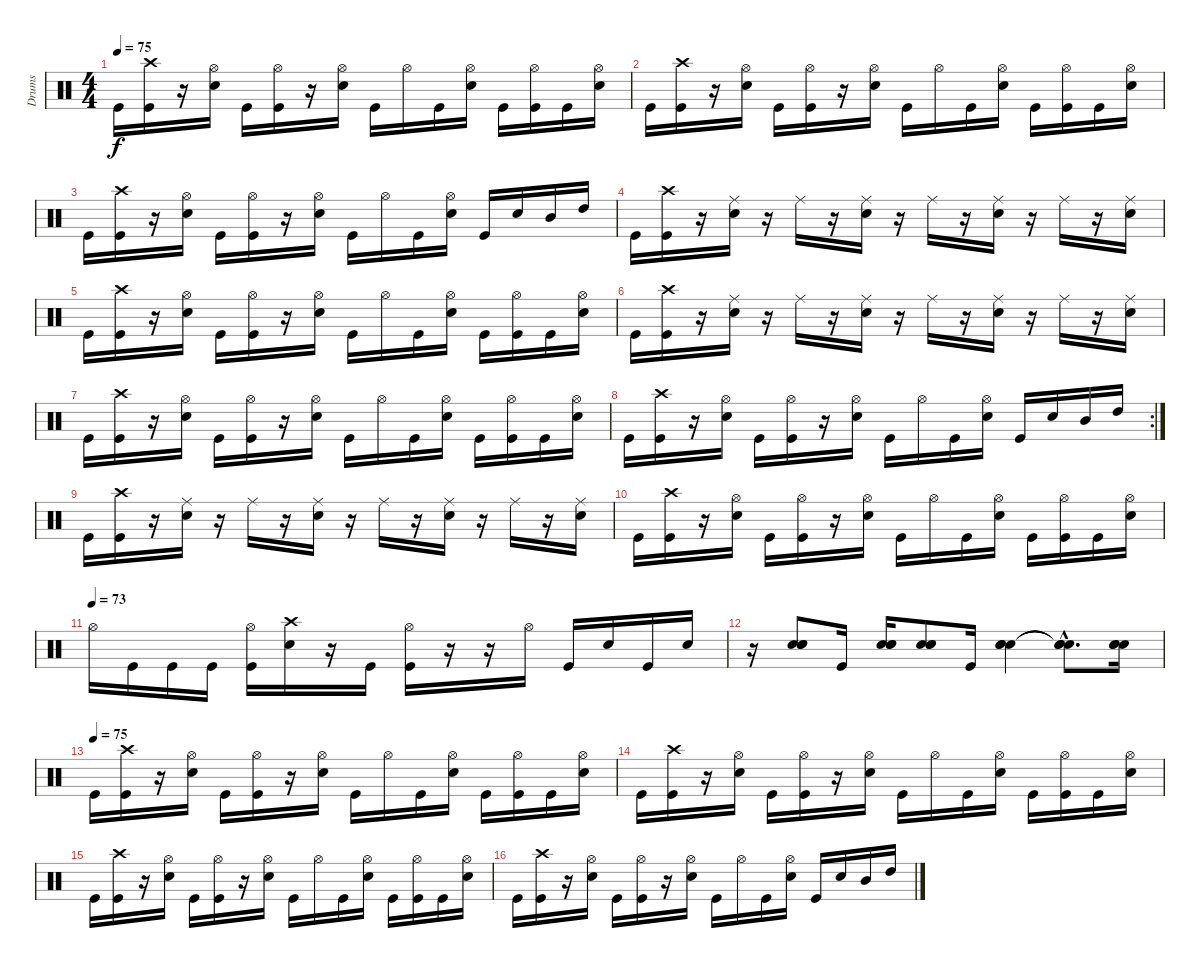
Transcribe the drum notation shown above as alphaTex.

\track ("Drums" "Drums") {instrument percussion}
\staff {score}
\articulation defaults
\ts (4 4)
\tempo 75
\clef neutral
\ks c "Kick (hit)".16{dy f}
("Crash high (hit)" "Kick (hit)").16 r.16 ("Hi-Hat (open)" "Snare (hit) 2").16 "Kick (hit)".16 ("Hi-Hat (open)" "Kick (hit)").16 r.16 ("Hi-Hat (open)" "Snare (hit) 2").16 "Kick (hit)".16 "Hi-Hat (open)".16 "Kick (hit)".16 ("Hi-Hat (open)" "Snare (hit) 2").16 "Kick (hit)".16 ("Hi-Hat (open)" "Kick (hit)").16 "Kick (hit)".16 ("Hi-Hat (open)" "Snare (hit) 2").16 |
"Kick (hit)".16 ("Crash high (hit)" "Kick (hit)").16 r.16 ("Hi-Hat (open)" "Snare (hit) 2").16 "Kick (hit)".16 ("Hi-Hat (open)" "Kick (hit)").16 r.16 ("Hi-Hat (open)" "Snare (hit) 2").16 "Kick (hit)".16 "Hi-Hat (open)".16 "Kick (hit)".16 ("Hi-Hat (open)" "Snare (hit) 2").16 "Kick (hit)".16 ("Hi-Hat (open)" "Kick (hit)").16 "Kick (hit)".16 ("Hi-Hat (open)" "Snare (hit) 2").16 |
"Kick (hit)".16 ("Crash high (hit)" "Kick (hit)").16 r.16 ("Hi-Hat (open)" "Snare (hit) 2").16 "Kick (hit)".16 ("Hi-Hat (open)" "Kick (hit)").16 r.16 ("Hi-Hat (open)" "Snare (hit) 2").16 "Kick (hit)".16 "Hi-Hat (open)".16 "Kick (hit)".16 ("Hi-Hat (open)" "Snare (hit) 2").16 "Kick (hit)".16 "Snare (hit) 2".16 "Mid Tom (hit)".16 "High Tom (hit)".16 |
"Kick (hit)".16 ("Crash high (hit)" "Kick (hit)").16 r.16 ("Ride (middle)" "Snare (hit) 2").16 r.16 "Ride (middle)".16 r.16 ("Ride (middle)" "Snare (hit) 2").16 r.16 "Ride (middle)".16 r.16 ("Ride (middle)" "Snare (hit) 2").16 r.16 "Ride (middle)".16 r.16 ("Ride (middle)" "Snare (hit) 2").16 |
"Kick (hit)".16 ("Crash high (hit)" "Kick (hit)").16 r.16 ("Hi-Hat (open)" "Snare (hit) 2").16 "Kick (hit)".16 ("Hi-Hat (open)" "Kick (hit)").16 r.16 ("Hi-Hat (open)" "Snare (hit) 2").16 "Kick (hit)".16 "Hi-Hat (open)".16 "Kick (hit)".16 ("Hi-Hat (open)" "Snare (hit) 2").16 "Kick (hit)".16 ("Hi-Hat (open)" "Kick (hit)").16 "Kick (hit)".16 ("Hi-Hat (open)" "Snare (hit) 2").16 |
"Kick (hit)".16 ("Crash high (hit)" "Kick (hit)").16 r.16 ("Ride (middle)" "Snare (hit) 2").16 r.16 "Ride (middle)".16 r.16 ("Ride (middle)" "Snare (hit) 2").16 r.16 "Ride (middle)".16 r.16 ("Ride (middle)" "Snare (hit) 2").16 r.16 "Ride (middle)".16 r.16 ("Ride (middle)" "Snare (hit) 2").16 |
"Kick (hit)".16 ("Crash high (hit)" "Kick (hit)").16 r.16 ("Hi-Hat (open)" "Snare (hit) 2").16 "Kick (hit)".16 ("Hi-Hat (open)" "Kick (hit)").16 r.16 ("Hi-Hat (open)" "Snare (hit) 2").16 "Kick (hit)".16 "Hi-Hat (open)".16 "Kick (hit)".16 ("Hi-Hat (open)" "Snare (hit) 2").16 "Kick (hit)".16 ("Hi-Hat (open)" "Kick (hit)").16 "Kick (hit)".16 ("Hi-Hat (open)" "Snare (hit) 2").16 |
\rc 2 "Kick (hit)".16
("Crash high (hit)" "Kick (hit)").16 r.16 ("Hi-Hat (open)" "Snare (hit) 2").16 "Kick (hit)".16 ("Hi-Hat (open)" "Kick (hit)").16 r.16 ("Hi-Hat (open)" "Snare (hit) 2").16 "Kick (hit)".16 "Hi-Hat (open)".16 "Kick (hit)".16 ("Hi-Hat (open)" "Snare (hit) 2").16 "Kick (hit)".16 "Snare (hit) 2".16 "Mid Tom (hit)".16 "High Tom (hit)".16 |
"Kick (hit)".16 ("Crash high (hit)" "Kick (hit)").16 r.16 ("Ride (middle)" "Snare (hit) 2").16 r.16 "Ride (middle)".16 r.16 ("Ride (middle)" "Snare (hit) 2").16 r.16 "Ride (middle)".16 r.16 ("Ride (middle)" "Snare (hit) 2").16 r.16 "Ride (middle)".16 r.16 ("Ride (middle)" "Snare (hit) 2").16 |
"Kick (hit)".16 ("Crash high (hit)" "Kick (hit)").16 r.16 ("Hi-Hat (open)" "Snare (hit) 2").16 "Kick (hit)".16 ("Hi-Hat (open)" "Kick (hit)").16 r.16 ("Hi-Hat (open)" "Snare (hit) 2").16 "Kick (hit)".16 "Hi-Hat (open)".16 "Kick (hit)".16 ("Hi-Hat (open)" "Snare (hit) 2").16 "Kick (hit)".16 ("Hi-Hat (open)" "Kick (hit)").16 "Kick (hit)".16 ("Hi-Hat (open)" "Snare (hit) 2").16 |
\tempo (73)
"Hi-Hat (open)".16 "Kick (hit)".16 "Kick (hit)".16 "Kick (hit)".16 ("Hi-Hat (open)" "Kick (hit)").16 ("Crash high (hit)" "Snare (hit) 2").16 r.16 "Kick (hit)".16 ("Hi-Hat (open)" "Kick (hit)").16 r.16 r.16 "Hi-Hat (open)".16 "Kick (hit)".16 "Snare (hit) 2".16 "Kick (hit)".16 "Snare (hit) 2".16 |
r.16 ("Snare (hit) 2" "Snare (hit) 2" "Snare (hit) 2").8 "Kick (hit)".16 ("Snare (hit) 2" "Snare (hit) 2" "Snare (hit) 2").16 ("Snare (hit) 2" "Snare (hit) 2" "Snare (hit) 2").8 "Kick (hit)".16 ("Snare (hit) 2" "Snare (hit) 2" "Snare (hit) 2").4 ("Snare (hit)"{hac t} "Snare (hit)"{hac t} "Snare (hit)"{hac t}).8{d} ("Snare (hit) 2" "Snare (hit) 2" "Snare (hit) 2").16 |
\tempo (75)
"Kick (hit)".16 ("Crash high (hit)" "Kick (hit)").16 r.16 ("Hi-Hat (open)" "Snare (hit) 2").16 "Kick (hit)".16 ("Hi-Hat (open)" "Kick (hit)").16 r.16 ("Hi-Hat (open)" "Snare (hit) 2").16 "Kick (hit)".16 "Hi-Hat (open)".16 "Kick (hit)".16 ("Hi-Hat (open)" "Snare (hit) 2").16 "Kick (hit)".16 ("Hi-Hat (open)" "Kick (hit)").16 "Kick (hit)".16 ("Hi-Hat (open)" "Snare (hit) 2").16 |
"Kick (hit)".16 ("Crash high (hit)" "Kick (hit)").16 r.16 ("Hi-Hat (open)" "Snare (hit) 2").16 "Kick (hit)".16 ("Hi-Hat (open)" "Kick (hit)").16 r.16 ("Hi-Hat (open)" "Snare (hit) 2").16 "Kick (hit)".16 "Hi-Hat (open)".16 "Kick (hit)".16 ("Hi-Hat (open)" "Snare (hit) 2").16 "Kick (hit)".16 ("Hi-Hat (open)" "Kick (hit)").16 "Kick (hit)".16 ("Hi-Hat (open)" "Snare (hit) 2").16 |
"Kick (hit)".16 ("Crash high (hit)" "Kick (hit)").16 r.16 ("Hi-Hat (open)" "Snare (hit) 2").16 "Kick (hit)".16 ("Hi-Hat (open)" "Kick (hit)").16 r.16 ("Hi-Hat (open)" "Snare (hit) 2").16 "Kick (hit)".16 "Hi-Hat (open)".16 "Kick (hit)".16 ("Hi-Hat (open)" "Snare (hit) 2").16 "Kick (hit)".16 ("Hi-Hat (open)" "Kick (hit)").16 "Kick (hit)".16 ("Hi-Hat (open)" "Snare (hit) 2").16 |
"Kick (hit)".16 ("Crash high (hit)" "Kick (hit)").16 r.16 ("Hi-Hat (open)" "Snare (hit) 2").16 "Kick (hit)".16 ("Hi-Hat (open)" "Kick (hit)").16 r.16 ("Hi-Hat (open)" "Snare (hit) 2").16 "Kick (hit)".16 "Hi-Hat (open)".16 "Kick (hit)".16 ("Hi-Hat (open)" "Snare (hit) 2").16 "Kick (hit)".16 "Snare (hit) 2".16 "Mid Tom (hit)".16 "High Tom (hit)".16
